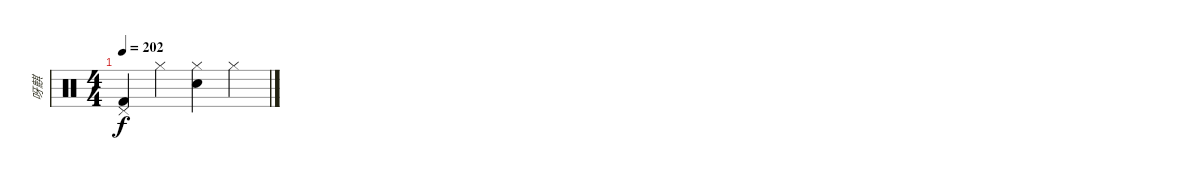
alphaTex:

\track ("呀麒" "呀麒") {instrument percussion}
\staff {score}
\articulation defaults
\ts (4 4)
\tempo 202
\clef neutral
\ks c
("Pedal Hi-Hat (hit)" "Kick (hit) 2").4{dy f} "Hi-Hat (closed)".4 ("Hi-Hat (closed)" "Snare (hit) 2").4 "Hi-Hat (closed)".4
